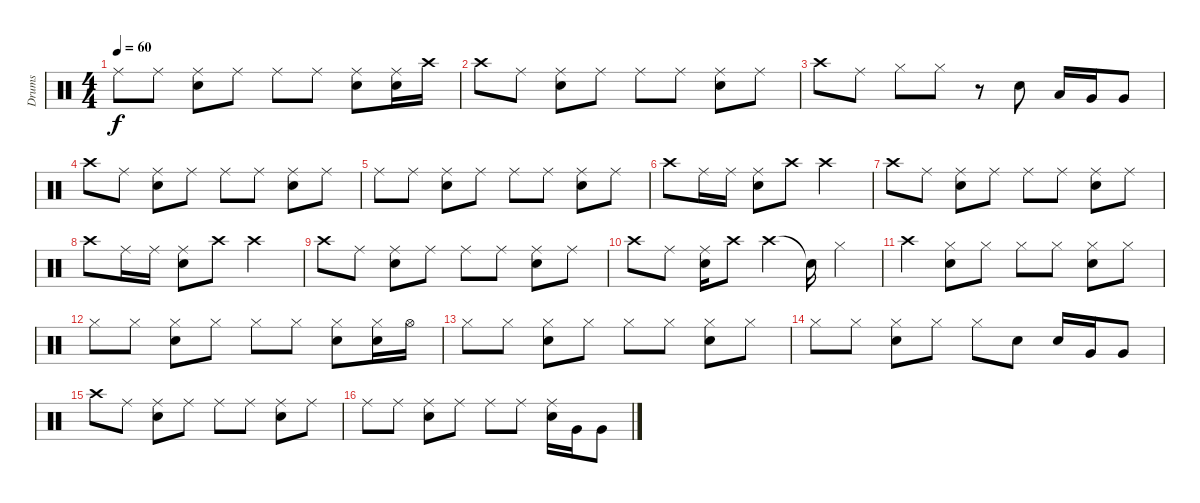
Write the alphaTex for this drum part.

\track ("Drums" "Drums") {instrument percussion}
\staff {score}
\articulation defaults
\ts (4 4)
\tempo 60
\clef neutral
\ks c "Ride (middle)".8{dy f} "Ride (middle)".8
("Snare (hit) 2" "Ride (middle)").8 "Ride (middle)".8 "Ride (middle)".8 "Ride (middle)".8 ("Snare (hit) 2" "Ride (middle)").8 ("Snare (hit) 2" "Ride (middle)").16 "Crash high (hit)".16 |
"Crash high (hit)".8 "Ride (middle)".8 ("Snare (hit) 2" "Ride (middle)").8 "Ride (middle)".8 "Ride (middle)".8 "Ride (middle)".8 ("Snare (hit) 2" "Ride (middle)").8 "Ride (middle)".8 |
"Crash high (hit)".8 "Ride (middle)".8 "Hi-Hat (closed)".8 "Hi-Hat (closed)".8 r.8 "Snare (hit) 2".8 "Low Tom (hit)".16 "Very Low Tom (hit)".16 "Very Low Tom (hit)".8 |
"Crash high (hit)".8 "Ride (middle)".8 ("Snare (hit) 2" "Ride (middle)").8 "Ride (middle)".8 "Ride (middle)".8 "Ride (middle)".8 ("Snare (hit) 2" "Ride (middle)").8 "Ride (middle)".8 |
"Ride (middle)".8 "Ride (middle)".8 ("Snare (hit) 2" "Ride (middle)").8 "Ride (middle)".8 "Ride (middle)".8 "Ride (middle)".8 ("Snare (hit) 2" "Ride (middle)").8 "Ride (middle)".8 |
"Crash high (hit)".8 "Ride (middle)".16 "Ride (middle)".16 ("Snare (hit) 2" "Ride (middle)").8 "Crash high (hit)".8 "Crash high (hit)".2 |
"Crash high (hit)".8 "Ride (middle)".8 ("Snare (hit) 2" "Ride (middle)").8 "Ride (middle)".8 "Ride (middle)".8 "Ride (middle)".8 ("Snare (hit) 2" "Ride (middle)").8 "Ride (middle)".8 |
"Crash high (hit)".8 "Ride (middle)".16 "Ride (middle)".16 ("Snare (hit) 2" "Ride (middle)").8 "Crash high (hit)".8 "Crash high (hit)".2 |
"Crash high (hit)".8 "Ride (middle)".8 ("Snare (hit) 2" "Ride (middle)").8 "Ride (middle)".8 "Ride (middle)".8 "Ride (middle)".8 ("Snare (hit) 2" "Ride (middle)").8 "Ride (middle)".8 |
"Crash high (hit)".8 "Ride (middle)".8 ("Snare (hit) 2" "Ride (middle)").16 "Crash high (hit)".8 "Crash high (hit)".4 "Snare (hit)"{t}.16 "Hi-Hat (closed)".4 |
"Crash high (hit)".4 ("Snare (hit) 2" "Hi-Hat (closed)").8 "Hi-Hat (closed)".8 "Hi-Hat (closed)".8 "Hi-Hat (closed)".8 ("Snare (hit) 2" "Hi-Hat (closed)").8 "Hi-Hat (closed)".8 |
"Hi-Hat (closed)".8 "Hi-Hat (closed)".8 ("Snare (hit) 2" "Hi-Hat (closed)").8 "Hi-Hat (closed)".8 "Hi-Hat (closed)".8 "Hi-Hat (closed)".8 ("Snare (hit) 2" "Hi-Hat (closed)").8 ("Snare (hit) 2" "Hi-Hat (closed)").16 "Hi-Hat (open)".16 |
"Hi-Hat (closed)".8 "Hi-Hat (closed)".8 ("Snare (hit) 2" "Hi-Hat (closed)").8 "Hi-Hat (closed)".8 "Hi-Hat (closed)".8 "Hi-Hat (closed)".8 ("Snare (hit) 2" "Hi-Hat (closed)").8 "Hi-Hat (closed)".8 |
"Hi-Hat (closed)".8 "Hi-Hat (closed)".8 ("Snare (hit) 2" "Hi-Hat (closed)").8 "Hi-Hat (closed)".8 "Hi-Hat (closed)".8 "Snare (hit) 2".8 "Snare (hit) 2".16 "Very Low Tom (hit)".16 "Very Low Tom (hit)".8 |
"Crash high (hit)".8 "Ride (middle)".8 ("Snare (hit) 2" "Ride (middle)").8 "Ride (middle)".8 "Ride (middle)".8 "Ride (middle)".8 ("Snare (hit) 2" "Ride (middle)").8 "Ride (middle)".8 |
"Ride (middle)".8 "Ride (middle)".8 ("Snare (hit) 2" "Ride (middle)").8 "Ride (middle)".8 "Ride (middle)".8 "Ride (middle)".8 ("Snare (hit) 2" "Ride (middle)").16 "Very Low Tom (hit)".16 "Very Low Tom (hit)".8
